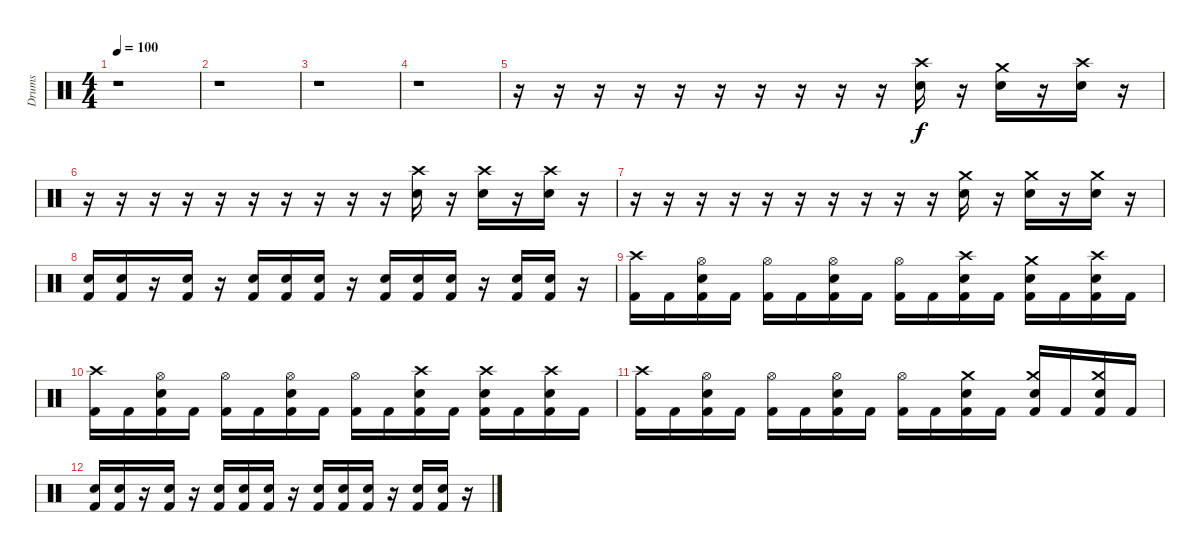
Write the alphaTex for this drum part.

\track ("Drums" "Drums") {instrument percussion}
\staff {score}
\articulation defaults
\ts (4 4)
\tempo 100
\clef neutral
\ks c
r.1{dy fff} |
r.1 |
r.1 |
r.1 |
r.16 r.16 r.16 r.16 r.16 r.16 r.16 r.16 r.16 r.16 ("Crash high (hit)" "Electric Snare (hit)").16{dy f} r.16 ("Crash medium (hit)" "Electric Snare (hit)").16 r.16 ("Crash high (hit)" "Electric Snare (hit)").16 r.16 |
r.16 r.16 r.16 r.16 r.16 r.16 r.16 r.16 r.16 r.16 ("Crash high (hit)" "Electric Snare (hit)").16 r.16 ("Crash high (hit)" "Electric Snare (hit)").16 r.16 ("Crash high (hit)" "Electric Snare (hit)").16 r.16 |
r.16 r.16 r.16 r.16 r.16 r.16 r.16 r.16 r.16 r.16 ("Crash medium (hit)" "Electric Snare (hit)").16 r.16 ("Crash medium (hit)" "Electric Snare (hit)").16 r.16 ("Crash medium (hit)" "Electric Snare (hit)").16 r.16 |
("Electric Snare (hit)" "Kick (hit) 2").16 ("Electric Snare (hit)" "Kick (hit) 2").16 r.16 ("Electric Snare (hit)" "Kick (hit) 2").16 r.16 ("Electric Snare (hit)" "Kick (hit) 2").16 ("Electric Snare (hit)" "Kick (hit) 2").16 ("Electric Snare (hit)" "Kick (hit) 2").16 r.16 ("Electric Snare (hit)" "Kick (hit) 2").16 ("Electric Snare (hit)" "Kick (hit) 2").16 ("Electric Snare (hit)" "Kick (hit) 2").16 r.16 ("Electric Snare (hit)" "Kick (hit) 2").16 ("Electric Snare (hit)" "Kick (hit) 2").16 r.16 |
("Crash high (hit)" "Kick (hit) 2").16 "Kick (hit) 2".16 ("Hi-Hat (open)" "Electric Snare (hit)" "Kick (hit) 2").16 "Kick (hit) 2".16 ("Hi-Hat (open)" "Kick (hit) 2").16 "Kick (hit) 2".16 ("Hi-Hat (open)" "Electric Snare (hit)" "Kick (hit) 2").16 "Kick (hit) 2".16 ("Hi-Hat (open)" "Kick (hit) 2").16 "Kick (hit) 2".16 ("Crash high (hit)" "Electric Snare (hit)" "Kick (hit) 2").16 "Kick (hit) 2".16 ("Crash medium (hit)" "Electric Snare (hit)" "Kick (hit) 2").16 "Kick (hit) 2".16 ("Crash high (hit)" "Electric Snare (hit)" "Kick (hit) 2").16 "Kick (hit) 2".16 |
("Crash high (hit)" "Kick (hit) 2").16 "Kick (hit) 2".16 ("Hi-Hat (open)" "Electric Snare (hit)" "Kick (hit) 2").16 "Kick (hit) 2".16 ("Hi-Hat (open)" "Kick (hit) 2").16 "Kick (hit) 2".16 ("Hi-Hat (open)" "Electric Snare (hit)" "Kick (hit) 2").16 "Kick (hit) 2".16 ("Hi-Hat (open)" "Kick (hit) 2").16 "Kick (hit) 2".16 ("Crash high (hit)" "Electric Snare (hit)" "Kick (hit) 2").16 "Kick (hit) 2".16 ("Crash high (hit)" "Electric Snare (hit)" "Kick (hit) 2").16 "Kick (hit) 2".16 ("Crash high (hit)" "Electric Snare (hit)" "Kick (hit) 2").16 "Kick (hit) 2".16 |
("Crash high (hit)" "Kick (hit) 2").16 "Kick (hit) 2".16 ("Hi-Hat (open)" "Electric Snare (hit)" "Kick (hit) 2").16 "Kick (hit) 2".16 ("Hi-Hat (open)" "Kick (hit) 2").16 "Kick (hit) 2".16 ("Hi-Hat (open)" "Electric Snare (hit)" "Kick (hit) 2").16 "Kick (hit) 2".16 ("Hi-Hat (open)" "Kick (hit) 2").16 "Kick (hit) 2".16 ("Crash medium (hit)" "Electric Snare (hit)" "Kick (hit) 2").16 "Kick (hit) 2".16 ("Crash medium (hit)" "Electric Snare (hit)" "Kick (hit) 2").16 "Kick (hit) 2".16 ("Crash medium (hit)" "Electric Snare (hit)" "Kick (hit) 2").16 "Kick (hit) 2".16 |
("Electric Snare (hit)" "Kick (hit) 2").16 ("Electric Snare (hit)" "Kick (hit) 2").16 r.16 ("Electric Snare (hit)" "Kick (hit) 2").16 r.16 ("Electric Snare (hit)" "Kick (hit) 2").16 ("Electric Snare (hit)" "Kick (hit) 2").16 ("Electric Snare (hit)" "Kick (hit) 2").16 r.16 ("Electric Snare (hit)" "Kick (hit) 2").16 ("Electric Snare (hit)" "Kick (hit) 2").16 ("Electric Snare (hit)" "Kick (hit) 2").16 r.16 ("Electric Snare (hit)" "Kick (hit) 2").16 ("Electric Snare (hit)" "Kick (hit) 2").16 r.16
